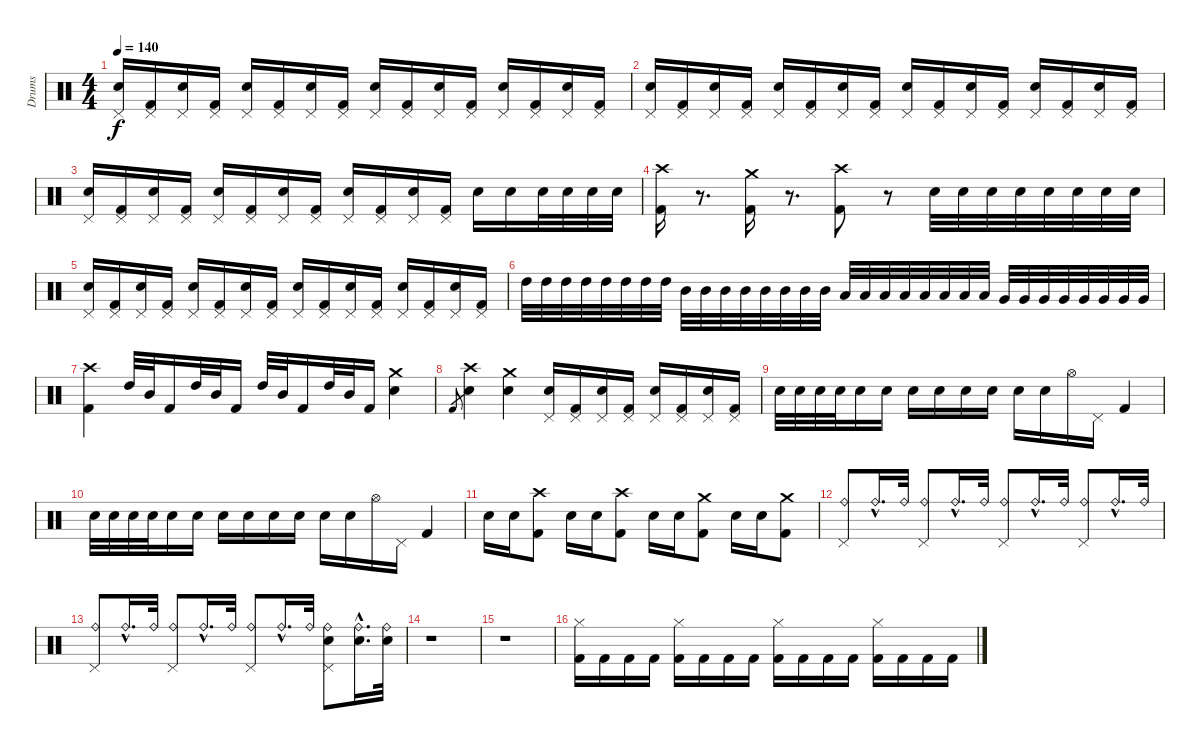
\track ("Drums" "Drums") {instrument percussion}
\staff {score}
\articulation defaults
\ts (4 4)
\tempo 140
\clef neutral
\ks c
("Snare (hit) 2" "Pedal Hi-Hat (hit)").16{dy f} ("Pedal Hi-Hat (hit)" "Kick (hit) 2").16 ("Snare (hit) 2" "Pedal Hi-Hat (hit)").16 ("Pedal Hi-Hat (hit)" "Kick (hit) 2").16 ("Snare (hit) 2" "Pedal Hi-Hat (hit)").16 ("Pedal Hi-Hat (hit)" "Kick (hit) 2").16 ("Snare (hit) 2" "Pedal Hi-Hat (hit)").16 ("Pedal Hi-Hat (hit)" "Kick (hit) 2").16 ("Snare (hit) 2" "Pedal Hi-Hat (hit)").16 ("Pedal Hi-Hat (hit)" "Kick (hit) 2").16 ("Snare (hit) 2" "Pedal Hi-Hat (hit)").16 ("Pedal Hi-Hat (hit)" "Kick (hit) 2").16 ("Snare (hit) 2" "Pedal Hi-Hat (hit)").16 ("Pedal Hi-Hat (hit)" "Kick (hit) 2").16 ("Snare (hit) 2" "Pedal Hi-Hat (hit)").16 ("Pedal Hi-Hat (hit)" "Kick (hit) 2").16 |
("Snare (hit) 2" "Pedal Hi-Hat (hit)").16 ("Pedal Hi-Hat (hit)" "Kick (hit) 2").16 ("Snare (hit) 2" "Pedal Hi-Hat (hit)").16 ("Pedal Hi-Hat (hit)" "Kick (hit) 2").16 ("Snare (hit) 2" "Pedal Hi-Hat (hit)").16 ("Pedal Hi-Hat (hit)" "Kick (hit) 2").16 ("Snare (hit) 2" "Pedal Hi-Hat (hit)").16 ("Pedal Hi-Hat (hit)" "Kick (hit) 2").16 ("Snare (hit) 2" "Pedal Hi-Hat (hit)").16 ("Pedal Hi-Hat (hit)" "Kick (hit) 2").16 ("Snare (hit) 2" "Pedal Hi-Hat (hit)").16 ("Pedal Hi-Hat (hit)" "Kick (hit) 2").16 ("Snare (hit) 2" "Pedal Hi-Hat (hit)").16 ("Pedal Hi-Hat (hit)" "Kick (hit) 2").16 ("Snare (hit) 2" "Pedal Hi-Hat (hit)").16 ("Pedal Hi-Hat (hit)" "Kick (hit) 2").16 |
("Snare (hit) 2" "Pedal Hi-Hat (hit)").16 ("Pedal Hi-Hat (hit)" "Kick (hit) 2").16 ("Snare (hit) 2" "Pedal Hi-Hat (hit)").16 ("Pedal Hi-Hat (hit)" "Kick (hit) 2").16 ("Snare (hit) 2" "Pedal Hi-Hat (hit)").16 ("Pedal Hi-Hat (hit)" "Kick (hit) 2").16 ("Snare (hit) 2" "Pedal Hi-Hat (hit)").16 ("Pedal Hi-Hat (hit)" "Kick (hit) 2").16 ("Snare (hit) 2" "Pedal Hi-Hat (hit)").16 ("Pedal Hi-Hat (hit)" "Kick (hit) 2").16 ("Snare (hit) 2" "Pedal Hi-Hat (hit)").16 ("Pedal Hi-Hat (hit)" "Kick (hit) 2").16 "Snare (hit) 2".16 "Snare (hit) 2".16 "Snare (hit) 2".32 "Snare (hit) 2".32 "Snare (hit) 2".32 "Snare (hit) 2".32 |
("Crash high (hit)" "Kick (hit) 2").16 r.8{d} ("Crash medium (hit)" "Kick (hit) 2").16 r.8{d} ("Crash high (hit)" "Kick (hit) 2").8 r.8 "Snare (hit) 2".32 "Snare (hit) 2".32 "Snare (hit) 2".32 "Snare (hit) 2".32 "Snare (hit) 2".32 "Snare (hit) 2".32 "Snare (hit) 2".32 "Snare (hit) 2".32 |
("Snare (hit) 2" "Pedal Hi-Hat (hit)").16 ("Pedal Hi-Hat (hit)" "Kick (hit) 2").16 ("Snare (hit) 2" "Pedal Hi-Hat (hit)").16 ("Pedal Hi-Hat (hit)" "Kick (hit) 2").16 ("Snare (hit) 2" "Pedal Hi-Hat (hit)").16 ("Pedal Hi-Hat (hit)" "Kick (hit) 2").16 ("Snare (hit) 2" "Pedal Hi-Hat (hit)").16 ("Pedal Hi-Hat (hit)" "Kick (hit) 2").16 ("Snare (hit) 2" "Pedal Hi-Hat (hit)").16 ("Pedal Hi-Hat (hit)" "Kick (hit) 2").16 ("Snare (hit) 2" "Pedal Hi-Hat (hit)").16 ("Pedal Hi-Hat (hit)" "Kick (hit) 2").16 ("Snare (hit) 2" "Pedal Hi-Hat (hit)").16 ("Pedal Hi-Hat (hit)" "Kick (hit) 2").16 ("Snare (hit) 2" "Pedal Hi-Hat (hit)").16 ("Pedal Hi-Hat (hit)" "Kick (hit) 2").16 |
"High Tom (hit)".32 "High Tom (hit)".32 "High Tom (hit)".32 "High Tom (hit)".32 "High Tom (hit)".32 "High Tom (hit)".32 "High Tom (hit)".32 "High Tom (hit)".32 "Mid Tom (hit)".32 "Mid Tom (hit)".32 "Mid Tom (hit)".32 "Mid Tom (hit)".32 "Mid Tom (hit)".32 "Mid Tom (hit)".32 "Mid Tom (hit)".32 "Mid Tom (hit)".32 "Low Tom (hit)".32 "Low Tom (hit)".32 "Low Tom (hit)".32 "Low Tom (hit)".32 "Low Tom (hit)".32 "Low Tom (hit)".32 "Low Tom (hit)".32 "Low Tom (hit)".32 "Very Low Tom (hit)".32 "Very Low Tom (hit)".32 "Very Low Tom (hit)".32 "Very Low Tom (hit)".32 "Very Low Tom (hit)".32 "Very Low Tom (hit)".32 "Very Low Tom (hit)".32 "Very Low Tom (hit)".32 |
("Crash high (hit)" "Kick (hit) 2").4 "High Tom (hit)".32 "Mid Tom (hit)".32 "Kick (hit) 2".16 "High Tom (hit)".32 "Mid Tom (hit)".32 "Kick (hit) 2".16 "High Tom (hit)".32 "Mid Tom (hit)".32 "Kick (hit) 2".16 "High Tom (hit)".32 "Mid Tom (hit)".32 "Kick (hit) 2".16 ("Crash medium (hit)" "Snare (hit) 2").4 |
"Kick (hit) 2".8{gr} ("Crash high (hit)" "Snare (hit) 2").4 ("Crash medium (hit)" "Snare (hit) 2").4 ("Pedal Hi-Hat (hit)" "Snare (hit) 2").16 ("Pedal Hi-Hat (hit)" "Kick (hit) 2").16 ("Pedal Hi-Hat (hit)" "Snare (hit) 2").16 ("Pedal Hi-Hat (hit)" "Kick (hit) 2").16 ("Pedal Hi-Hat (hit)" "Snare (hit) 2").16 ("Pedal Hi-Hat (hit)" "Kick (hit) 2").16 ("Pedal Hi-Hat (hit)" "Snare (hit) 2").16 ("Pedal Hi-Hat (hit)" "Kick (hit) 2").16 |
"Snare (hit) 2".32 "Snare (hit) 2".32 "Snare (hit) 2".32 "Snare (hit) 2".32 "Snare (hit) 2".16 "Snare (hit) 2".16 "Snare (hit) 2".16 "Snare (hit) 2".16 "Snare (hit) 2".16 "Snare (hit) 2".16 "Snare (hit) 2".16 "Snare (hit) 2".16 "Hi-Hat (open)".16 "Pedal Hi-Hat (hit)".16 "Kick (hit) 2".4 |
"Snare (hit) 2".32 "Snare (hit) 2".32 "Snare (hit) 2".32 "Snare (hit) 2".32 "Snare (hit) 2".16 "Snare (hit) 2".16 "Snare (hit) 2".16 "Snare (hit) 2".16 "Snare (hit) 2".16 "Snare (hit) 2".16 "Snare (hit) 2".16 "Snare (hit) 2".16 "Hi-Hat (open)".16 "Pedal Hi-Hat (hit)".16 "Kick (hit) 2".4 |
"Snare (hit) 2".16 "Snare (hit) 2".16 ("Crash high (hit)" "Kick (hit) 2").8 "Snare (hit) 2".16 "Snare (hit) 2".16 ("Crash high (hit)" "Kick (hit) 2").8 "Snare (hit) 2".16 "Snare (hit) 2".16 ("Crash medium (hit)" "Kick (hit) 2").8 "Snare (hit) 2".16 "Snare (hit) 2".16 ("Crash medium (hit)" "Kick (hit) 2").8 |
("Ride (bell)" "Pedal Hi-Hat (hit)").8 "Ride (bell)"{hac}.16{d} "Ride (bell)".32 ("Ride (bell)" "Pedal Hi-Hat (hit)").8 "Ride (bell)"{hac}.16{d} "Ride (bell)".32 ("Ride (bell)" "Pedal Hi-Hat (hit)").8 "Ride (bell)"{hac}.16{d} "Ride (bell)".32 ("Ride (bell)" "Pedal Hi-Hat (hit)").8 "Ride (bell)"{hac}.16{d} "Ride (bell)".32 |
("Ride (bell)" "Pedal Hi-Hat (hit)").8 "Ride (bell)"{hac}.16{d} "Ride (bell)".32 ("Ride (bell)" "Pedal Hi-Hat (hit)").8 "Ride (bell)"{hac}.16{d} "Ride (bell)".32 ("Ride (bell)" "Pedal Hi-Hat (hit)").8 "Ride (bell)"{hac}.16{d} "Ride (bell)".32 ("Ride (bell)" "Snare (hit) 2" "Pedal Hi-Hat (hit)").8 ("Ride (bell)"{hac} "Snare (hit) 2"{hac}).16{d} ("Ride (bell)" "Snare (hit) 2").32 |
r.1 |
r.1 |
("Hi-Hat (closed)" "Kick (hit) 2").16 "Kick (hit) 2".16 "Kick (hit) 2".16 "Kick (hit) 2".16 ("Hi-Hat (closed)" "Kick (hit) 2").16 "Kick (hit) 2".16 "Kick (hit) 2".16 "Kick (hit) 2".16 ("Hi-Hat (closed)" "Kick (hit) 2").16 "Kick (hit) 2".16 "Kick (hit) 2".16 "Kick (hit) 2".16 ("Hi-Hat (closed)" "Kick (hit) 2").16 "Kick (hit) 2".16 "Kick (hit) 2".16 "Kick (hit) 2".16
